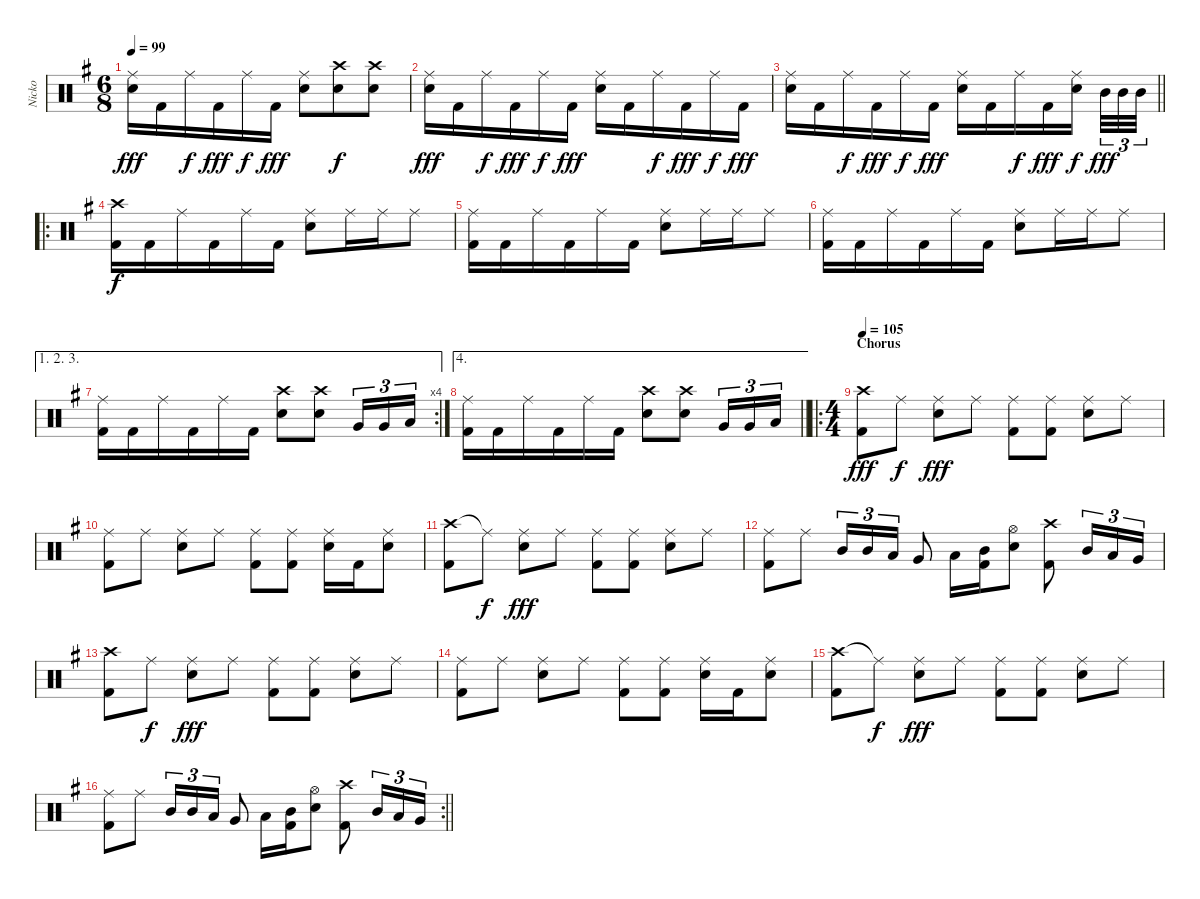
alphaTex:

\track ("Nicko" "Nicko") {instrument percussion}
\staff {score}
\articulation defaults
\ts (6 8)
\tempo 99
\clef neutral
\ks eminor
("Ride (middle)" "Snare (hit) 2").16{dy fff} "Kick (hit) 2".16 "Ride (middle)".16{dy f} "Kick (hit) 2".16{dy fff} "Ride (middle)".16{dy f} "Kick (hit) 2".16{dy fff} ("Ride (middle)" "Snare (hit) 2").8 ("Crash high (hit)" "Snare (hit) 2").8{dy f} ("Crash high (hit)" "Snare (hit) 2").8 |
("Ride (middle)" "Snare (hit) 2").16{dy fff} "Kick (hit) 2".16 "Ride (middle)".16{dy f} "Kick (hit) 2".16{dy fff} "Ride (middle)".16{dy f} "Kick (hit) 2".16{dy fff} ("Ride (middle)" "Snare (hit) 2").16 "Kick (hit) 2".16 "Ride (middle)".16{dy f} "Kick (hit) 2".16{dy fff} "Ride (middle)".16{dy f} "Kick (hit) 2".16{dy fff} |
\barLineRight lightlight
("Ride (middle)" "Snare (hit) 2").16 "Kick (hit) 2".16 "Ride (middle)".16{dy f} "Kick (hit) 2".16{dy fff} "Ride (middle)".16{dy f} "Kick (hit) 2".16{dy fff} ("Ride (middle)" "Snare (hit) 2").16 "Kick (hit) 2".16 "Ride (middle)".16{dy f} "Kick (hit) 2".16{dy fff} ("Ride (middle)" "Snare (hit) 2").16{dy f} "Mid Tom (hit)".32{tu (3 2) dy fff} "Mid Tom (hit)".32{tu (3 2)} "Mid Tom (hit)".32{tu (3 2)} |
\ro
("Crash high (hit)" "Kick (hit) 2").16{dy f} "Kick (hit) 2".16 "Ride (middle)".16 "Kick (hit) 2".16 "Ride (middle)".16 "Kick (hit) 2".16 ("Ride (middle)" "Snare (hit) 2").8 "Ride (middle)".16 "Ride (middle)".16 "Ride (middle)".8 |
("Ride (middle)" "Kick (hit) 2").16 "Kick (hit) 2".16 "Ride (middle)".16 "Kick (hit) 2".16 "Ride (middle)".16 "Kick (hit) 2".16 ("Ride (middle)" "Snare (hit) 2").8 "Ride (middle)".16 "Ride (middle)".16 "Ride (middle)".8 |
("Ride (middle)" "Kick (hit) 2").16 "Kick (hit) 2".16 "Ride (middle)".16 "Kick (hit) 2".16 "Ride (middle)".16 "Kick (hit) 2".16 ("Ride (middle)" "Snare (hit) 2").8 "Ride (middle)".16 "Ride (middle)".16 "Ride (middle)".8 |
\ae (1 2 3)
\rc 4
("Ride (middle)" "Kick (hit) 2").16 "Kick (hit) 2".16 "Ride (middle)".16 "Kick (hit) 2".16 "Ride (middle)".16 "Kick (hit) 2".16 ("Crash high (hit)" "Snare (hit) 2").8 ("Crash high (hit)" "Snare (hit) 2").8 "Very Low Tom (hit)".16{tu (3 2)} "Very Low Tom (hit)".16{tu (3 2)} "Low Floor Tom (hit)".16{tu (3 2)} |
\ae 4
\barLineRight lightlight
("Ride (middle)" "Kick (hit) 2").16 "Kick (hit) 2".16 "Ride (middle)".16 "Kick (hit) 2".16 "Ride (middle)".16 "Kick (hit) 2".16 ("Crash high (hit)" "Snare (hit) 2").8 ("Crash high (hit)" "Snare (hit) 2").8 "Very Low Tom (hit)".16{tu (3 2)} "Very Low Tom (hit)".16{tu (3 2)} "Low Floor Tom (hit)".16{tu (3 2)} |
\ro
\ts (4 4)
\section ("" "Chorus")
\tempo 105
("Crash high (hit)" "Kick (hit) 2").8{dy fff} "Ride (middle)".8{dy f} ("Ride (middle)" "Snare (hit) 2").8{dy fff} "Ride (middle)".8 ("Ride (middle)" "Kick (hit) 2").8 ("Ride (middle)" "Kick (hit) 2").8 ("Ride (middle)" "Snare (hit) 2").8 "Ride (middle)".8 |
("Ride (middle)" "Kick (hit) 2").8 "Ride (middle)".8 ("Ride (middle)" "Snare (hit) 2").8 "Ride (middle)".8 ("Ride (middle)" "Kick (hit) 2").8 ("Ride (middle)" "Kick (hit) 2").8 ("Ride (middle)" "Snare (hit) 2").16 "Kick (hit) 2".16 ("Ride (middle)" "Snare (hit) 2").8 |
("Crash high (hit)" "Kick (hit) 2").8 "Ride (middle)"{t}.8{dy f} ("Ride (middle)" "Snare (hit) 2").8{dy fff} "Ride (middle)".8 ("Ride (middle)" "Kick (hit) 2").8 ("Ride (middle)" "Kick (hit) 2").8 ("Ride (middle)" "Snare (hit) 2").8 "Ride (middle)".8 |
("Ride (middle)" "Kick (hit) 2").8 "Ride (middle)".8 "Mid Tom (hit)".16{tu (3 2)} "Mid Tom (hit)".16{tu (3 2)} "Low Tom (hit)".16{tu (3 2)} "Very Low Tom (hit)".8 "Low Tom (hit)".16 ("Mid Tom (hit)" "Kick (hit) 2").16 ("Hi-Hat (open)" "Snare (hit) 2").8 ("Crash high (hit)" "Kick (hit) 2").8 "Mid Tom (hit)".16{tu (3 2)} "Low Tom (hit)".16{tu (3 2)} "Very Low Tom (hit)".16{tu (3 2)} |
("Crash high (hit)" "Kick (hit) 2").8 "Ride (middle)".8{dy f} ("Ride (middle)" "Snare (hit) 2").8{dy fff} "Ride (middle)".8 ("Ride (middle)" "Kick (hit) 2").8 ("Ride (middle)" "Kick (hit) 2").8 ("Ride (middle)" "Snare (hit) 2").8 "Ride (middle)".8 |
("Ride (middle)" "Kick (hit) 2").8 "Ride (middle)".8 ("Ride (middle)" "Snare (hit) 2").8 "Ride (middle)".8 ("Ride (middle)" "Kick (hit) 2").8 ("Ride (middle)" "Kick (hit) 2").8 ("Ride (middle)" "Snare (hit) 2").16 "Kick (hit) 2".16 ("Ride (middle)" "Snare (hit) 2").8 |
("Crash high (hit)" "Kick (hit) 2").8 "Ride (middle)"{t}.8{dy f} ("Ride (middle)" "Snare (hit) 2").8{dy fff} "Ride (middle)".8 ("Ride (middle)" "Kick (hit) 2").8 ("Ride (middle)" "Kick (hit) 2").8 ("Ride (middle)" "Snare (hit) 2").8 "Ride (middle)".8 |
\rc 2
\barLineRight lightlight
("Ride (middle)" "Kick (hit) 2").8 "Ride (middle)".8 "Mid Tom (hit)".16{tu (3 2)} "Mid Tom (hit)".16{tu (3 2)} "Low Tom (hit)".16{tu (3 2)} "Very Low Tom (hit)".8 "Low Tom (hit)".16 ("Mid Tom (hit)" "Kick (hit) 2").16 ("Hi-Hat (open)" "Snare (hit) 2").8 ("Crash high (hit)" "Kick (hit) 2").8 "Mid Tom (hit)".16{tu (3 2)} "Low Tom (hit)".16{tu (3 2)} "Very Low Tom (hit)".16{tu (3 2)}
